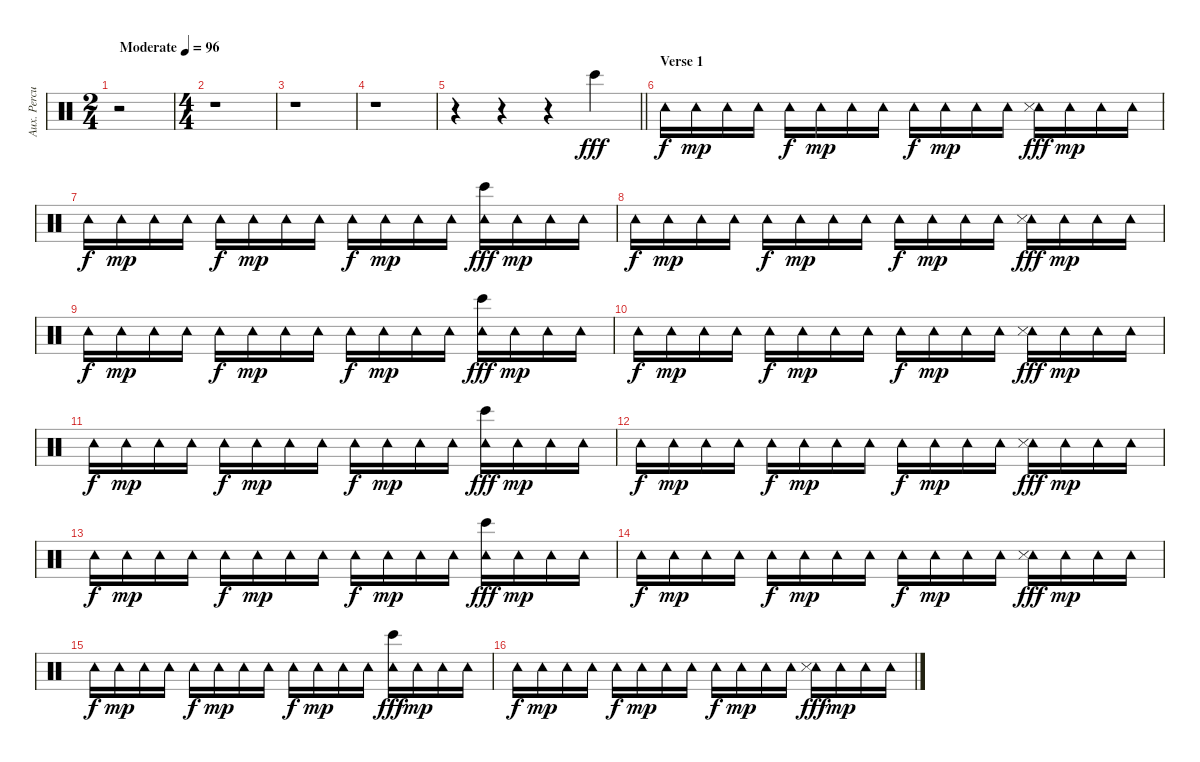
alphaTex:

\track ("Aux. Percussion" "Aux. Percu") {instrument percussion}
\staff {score}
\articulation defaults
\ts (2 4)
\tempo (96 "Moderate")
\clef neutral
\ks c
r.2{dy fff} |
\ts (4 4)
r.1 |
r.1 |
r.1 |
\barLineRight lightlight
r.4 r.4 r.4 "Bongo High (hit)".4 |
\section ("" "Verse 1")
"Tambourine (hit)".16{dy f} "Tambourine (hit)".16{dy mp} "Tambourine (hit)".16 "Tambourine (hit)".16 "Tambourine (hit)".16{dy f} "Tambourine (hit)".16{dy mp} "Tambourine (hit)".16 "Tambourine (hit)".16 "Tambourine (hit)".16{dy f} "Tambourine (hit)".16{dy mp} "Tambourine (hit)".16 "Tambourine (hit)".16 ("Tambourine (hit)" "Snare (side stick) 3").16{dy fff} "Tambourine (hit)".16{dy mp} "Tambourine (hit)".16 "Tambourine (hit)".16 |
"Tambourine (hit)".16{dy f} "Tambourine (hit)".16{dy mp} "Tambourine (hit)".16 "Tambourine (hit)".16 "Tambourine (hit)".16{dy f} "Tambourine (hit)".16{dy mp} "Tambourine (hit)".16 "Tambourine (hit)".16 "Tambourine (hit)".16{dy f} "Tambourine (hit)".16{dy mp} "Tambourine (hit)".16 "Tambourine (hit)".16 ("Tambourine (hit)" "Bongo High (hit)").16{dy fff} "Tambourine (hit)".16{dy mp} "Tambourine (hit)".16 "Tambourine (hit)".16 |
"Tambourine (hit)".16{dy f} "Tambourine (hit)".16{dy mp} "Tambourine (hit)".16 "Tambourine (hit)".16 "Tambourine (hit)".16{dy f} "Tambourine (hit)".16{dy mp} "Tambourine (hit)".16 "Tambourine (hit)".16 "Tambourine (hit)".16{dy f} "Tambourine (hit)".16{dy mp} "Tambourine (hit)".16 "Tambourine (hit)".16 ("Tambourine (hit)" "Snare (side stick) 3").16{dy fff} "Tambourine (hit)".16{dy mp} "Tambourine (hit)".16 "Tambourine (hit)".16 |
"Tambourine (hit)".16{dy f} "Tambourine (hit)".16{dy mp} "Tambourine (hit)".16 "Tambourine (hit)".16 "Tambourine (hit)".16{dy f} "Tambourine (hit)".16{dy mp} "Tambourine (hit)".16 "Tambourine (hit)".16 "Tambourine (hit)".16{dy f} "Tambourine (hit)".16{dy mp} "Tambourine (hit)".16 "Tambourine (hit)".16 ("Tambourine (hit)" "Bongo High (hit)").16{dy fff} "Tambourine (hit)".16{dy mp} "Tambourine (hit)".16 "Tambourine (hit)".16 |
"Tambourine (hit)".16{dy f} "Tambourine (hit)".16{dy mp} "Tambourine (hit)".16 "Tambourine (hit)".16 "Tambourine (hit)".16{dy f} "Tambourine (hit)".16{dy mp} "Tambourine (hit)".16 "Tambourine (hit)".16 "Tambourine (hit)".16{dy f} "Tambourine (hit)".16{dy mp} "Tambourine (hit)".16 "Tambourine (hit)".16 ("Tambourine (hit)" "Snare (side stick) 3").16{dy fff} "Tambourine (hit)".16{dy mp} "Tambourine (hit)".16 "Tambourine (hit)".16 |
"Tambourine (hit)".16{dy f} "Tambourine (hit)".16{dy mp} "Tambourine (hit)".16 "Tambourine (hit)".16 "Tambourine (hit)".16{dy f} "Tambourine (hit)".16{dy mp} "Tambourine (hit)".16 "Tambourine (hit)".16 "Tambourine (hit)".16{dy f} "Tambourine (hit)".16{dy mp} "Tambourine (hit)".16 "Tambourine (hit)".16 ("Tambourine (hit)" "Bongo High (hit)").16{dy fff} "Tambourine (hit)".16{dy mp} "Tambourine (hit)".16 "Tambourine (hit)".16 |
"Tambourine (hit)".16{dy f} "Tambourine (hit)".16{dy mp} "Tambourine (hit)".16 "Tambourine (hit)".16 "Tambourine (hit)".16{dy f} "Tambourine (hit)".16{dy mp} "Tambourine (hit)".16 "Tambourine (hit)".16 "Tambourine (hit)".16{dy f} "Tambourine (hit)".16{dy mp} "Tambourine (hit)".16 "Tambourine (hit)".16 ("Tambourine (hit)" "Snare (side stick) 3").16{dy fff} "Tambourine (hit)".16{dy mp} "Tambourine (hit)".16 "Tambourine (hit)".16 |
"Tambourine (hit)".16{dy f} "Tambourine (hit)".16{dy mp} "Tambourine (hit)".16 "Tambourine (hit)".16 "Tambourine (hit)".16{dy f} "Tambourine (hit)".16{dy mp} "Tambourine (hit)".16 "Tambourine (hit)".16 "Tambourine (hit)".16{dy f} "Tambourine (hit)".16{dy mp} "Tambourine (hit)".16 "Tambourine (hit)".16 ("Tambourine (hit)" "Bongo High (hit)").16{dy fff} "Tambourine (hit)".16{dy mp} "Tambourine (hit)".16 "Tambourine (hit)".16 |
"Tambourine (hit)".16{dy f} "Tambourine (hit)".16{dy mp} "Tambourine (hit)".16 "Tambourine (hit)".16 "Tambourine (hit)".16{dy f} "Tambourine (hit)".16{dy mp} "Tambourine (hit)".16 "Tambourine (hit)".16 "Tambourine (hit)".16{dy f} "Tambourine (hit)".16{dy mp} "Tambourine (hit)".16 "Tambourine (hit)".16 ("Tambourine (hit)" "Snare (side stick) 3").16{dy fff} "Tambourine (hit)".16{dy mp} "Tambourine (hit)".16 "Tambourine (hit)".16 |
"Tambourine (hit)".16{dy f} "Tambourine (hit)".16{dy mp} "Tambourine (hit)".16 "Tambourine (hit)".16 "Tambourine (hit)".16{dy f} "Tambourine (hit)".16{dy mp} "Tambourine (hit)".16 "Tambourine (hit)".16 "Tambourine (hit)".16{dy f} "Tambourine (hit)".16{dy mp} "Tambourine (hit)".16 "Tambourine (hit)".16 ("Tambourine (hit)" "Bongo High (hit)").16{dy fff} "Tambourine (hit)".16{dy mp} "Tambourine (hit)".16 "Tambourine (hit)".16 |
"Tambourine (hit)".16{dy f} "Tambourine (hit)".16{dy mp} "Tambourine (hit)".16 "Tambourine (hit)".16 "Tambourine (hit)".16{dy f} "Tambourine (hit)".16{dy mp} "Tambourine (hit)".16 "Tambourine (hit)".16 "Tambourine (hit)".16{dy f} "Tambourine (hit)".16{dy mp} "Tambourine (hit)".16 "Tambourine (hit)".16 ("Tambourine (hit)" "Snare (side stick) 3").16{dy fff} "Tambourine (hit)".16{dy mp} "Tambourine (hit)".16 "Tambourine (hit)".16
